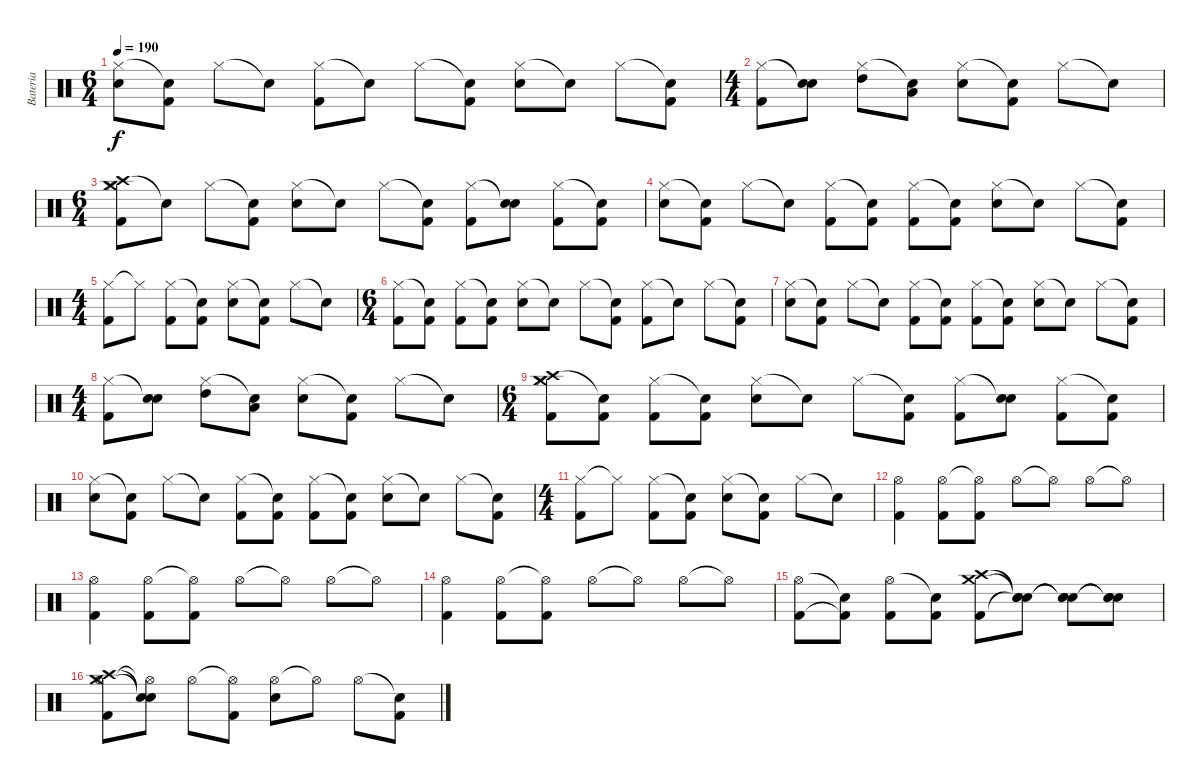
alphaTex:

\track ("Bateria" "Bateria") {instrument percussion}
\staff {score}
\articulation defaults
\ts (6 4)
\tempo 190
\clef neutral
\ks c
("Hi-Hat (closed)" "Electric Snare (hit)").8{dy f} ("Snare (hit)"{t} "Kick (hit) 2").8 "Hi-Hat (closed)".8 "Snare (hit)"{t}.8 ("Hi-Hat (closed)" "Kick (hit) 2").8 "Snare (hit)"{t}.8 "Hi-Hat (closed)".8 ("Snare (hit)"{t} "Kick (hit) 2").8 ("Hi-Hat (closed)" "Electric Snare (hit)").8 "Snare (hit)"{t}.8 "Hi-Hat (closed)".8 ("Snare (hit)"{t} "Kick (hit) 2").8 |
\ts (4 4)
("Hi-Hat (closed)" "Kick (hit) 2").8 ("Snare (hit)"{t} "Electric Snare (hit)").8 ("Hi-Hat (closed)" "High Tom (hit)").8 ("Snare (hit)"{t} "Low Tom (hit)").8 ("Hi-Hat (closed)" "Electric Snare (hit)").8 ("Snare (hit)"{t} "Kick (hit) 2").8 "Hi-Hat (closed)".8 "Snare (hit)"{t}.8 |
\ts (6 4)
("Crash high (hit)" "Crash medium (hit)" "Hi-Hat (closed)" "Kick (hit) 2").8 "Snare (hit)"{t}.8 "Hi-Hat (closed)".8 ("Snare (hit)"{t} "Kick (hit) 2").8 ("Hi-Hat (closed)" "Electric Snare (hit)").8 "Snare (hit)"{t}.8 "Hi-Hat (closed)".8 ("Snare (hit)"{t} "Kick (hit) 2").8 ("Hi-Hat (closed)" "Kick (hit) 2").8 ("Snare (hit)"{t} "Electric Snare (hit)").8 ("Hi-Hat (closed)" "Kick (hit) 2").8 ("Snare (hit)"{t} "Kick (hit) 2").8 |
("Hi-Hat (closed)" "Electric Snare (hit)").8 ("Snare (hit)"{t} "Kick (hit) 2").8 "Hi-Hat (closed)".8 "Snare (hit)"{t}.8 ("Hi-Hat (closed)" "Kick (hit) 2").8 ("Snare (hit)"{t} "Kick (hit) 2").8 ("Hi-Hat (closed)" "Kick (hit) 2").8 ("Snare (hit)"{t} "Kick (hit) 2").8 ("Hi-Hat (closed)" "Electric Snare (hit)").8 "Snare (hit)"{t}.8 "Hi-Hat (closed)".8 ("Snare (hit)"{t} "Kick (hit) 2").8 |
\ts (4 4)
("Hi-Hat (closed)" "Kick (hit) 2").8 "Hi-Hat (closed)"{t}.8 ("Hi-Hat (closed)" "Kick (hit) 2").8 ("Snare (hit)"{t} "Kick (hit) 2").8 ("Hi-Hat (closed)" "Electric Snare (hit)").8 ("Snare (hit)"{t} "Kick (hit) 2").8 "Hi-Hat (closed)".8 "Snare (hit)"{t}.8 |
\ts (6 4)
("Hi-Hat (closed)" "Kick (hit) 2").8 ("Snare (hit)"{t} "Kick (hit) 2").8 ("Hi-Hat (closed)" "Kick (hit) 2").8 ("Snare (hit)"{t} "Kick (hit) 2").8 ("Hi-Hat (closed)" "Electric Snare (hit)").8 "Snare (hit)"{t}.8 "Hi-Hat (closed)".8 ("Snare (hit)"{t} "Kick (hit) 2").8 ("Hi-Hat (closed)" "Kick (hit) 2").8 "Snare (hit)"{t}.8 "Hi-Hat (closed)".8 ("Snare (hit)"{t} "Kick (hit) 2").8 |
("Hi-Hat (closed)" "Electric Snare (hit)").8 ("Snare (hit)"{t} "Kick (hit) 2").8 "Hi-Hat (closed)".8 "Snare (hit)"{t}.8 ("Hi-Hat (closed)" "Kick (hit) 2").8 ("Snare (hit)"{t} "Kick (hit) 2").8 ("Hi-Hat (closed)" "Kick (hit) 2").8 ("Snare (hit)"{t} "Kick (hit) 2").8 ("Hi-Hat (closed)" "Electric Snare (hit)").8 "Snare (hit)"{t}.8 "Hi-Hat (closed)".8 ("Snare (hit)"{t} "Kick (hit) 2").8 |
\ts (4 4)
("Hi-Hat (closed)" "Kick (hit) 2").8 ("Snare (hit)"{t} "Electric Snare (hit)").8 ("Hi-Hat (closed)" "High Tom (hit)").8 ("Snare (hit)"{t} "Low Tom (hit)").8 ("Hi-Hat (closed)" "Electric Snare (hit)").8 ("Snare (hit)"{t} "Kick (hit) 2").8 "Hi-Hat (closed)".8 "Snare (hit)"{t}.8 |
\ts (6 4)
("Crash high (hit)" "Crash medium (hit)" "Hi-Hat (closed)" "Kick (hit) 2").8 ("Snare (hit)"{t} "Kick (hit) 2").8 ("Hi-Hat (closed)" "Kick (hit) 2").8 ("Snare (hit)"{t} "Kick (hit) 2").8 ("Hi-Hat (closed)" "Electric Snare (hit)").8 "Snare (hit)"{t}.8 "Hi-Hat (closed)".8 ("Snare (hit)"{t} "Kick (hit) 2").8 ("Hi-Hat (closed)" "Kick (hit) 2").8 ("Snare (hit)"{t} "Electric Snare (hit)").8 ("Hi-Hat (closed)" "Kick (hit) 2").8 ("Snare (hit)"{t} "Kick (hit) 2").8 |
("Hi-Hat (closed)" "Electric Snare (hit)").8 ("Snare (hit)"{t} "Kick (hit) 2").8 "Hi-Hat (closed)".8 "Snare (hit)"{t}.8 ("Hi-Hat (closed)" "Kick (hit) 2").8 ("Snare (hit)"{t} "Kick (hit) 2").8 ("Hi-Hat (closed)" "Kick (hit) 2").8 ("Snare (hit)"{t} "Kick (hit) 2").8 ("Hi-Hat (closed)" "Electric Snare (hit)").8 "Snare (hit)"{t}.8 "Hi-Hat (closed)".8 ("Snare (hit)"{t} "Kick (hit) 2").8 |
\ts (4 4)
("Hi-Hat (closed)" "Kick (hit) 2").8 "Hi-Hat (closed)"{t}.8 ("Hi-Hat (closed)" "Kick (hit) 2").8 ("Snare (hit)"{t} "Kick (hit) 2").8 ("Hi-Hat (closed)" "Electric Snare (hit)").8 ("Snare (hit)"{t} "Kick (hit) 2").8 "Hi-Hat (closed)".8 "Snare (hit)"{t}.8 |
("Hi-Hat (open)" "Kick (hit) 2").4 ("Hi-Hat (open)" "Kick (hit) 2").8 ("Hi-Hat (open)"{t} "Kick (hit) 2").8 "Hi-Hat (open)".8 "Hi-Hat (open)"{t}.8 "Hi-Hat (open)".8 "Hi-Hat (open)"{t}.8 |
("Hi-Hat (open)" "Kick (hit) 2").4 ("Hi-Hat (open)" "Kick (hit) 2").8 ("Hi-Hat (open)"{t} "Kick (hit) 2").8 "Hi-Hat (open)".8 "Hi-Hat (open)"{t}.8 "Hi-Hat (open)".8 "Hi-Hat (open)"{t}.8 |
("Hi-Hat (open)" "Kick (hit) 2").4 ("Hi-Hat (open)" "Kick (hit) 2").8 ("Hi-Hat (open)"{t} "Kick (hit) 2").8 "Hi-Hat (open)".8 "Hi-Hat (open)"{t}.8 "Hi-Hat (open)".8 "Hi-Hat (open)"{t}.8 |
("Hi-Hat (open)" "Kick (hit) 2").8 ("Snare (hit)"{t} "Kick (hit) 2"{t}).8 ("Hi-Hat (open)" "Kick (hit) 2").8 ("Snare (hit)"{t} "Kick (hit) 2").8 ("Crash high (hit)" "Crash medium (hit)" "Kick (hit) 2").8 ("Snare (hit)"{t} "Snare (hit)"{t} "Snare (hit)"{t}).8 ("Snare (hit)"{t} "Snare (hit)"{t} "Snare (hit)"{t}).8 ("Snare (hit)"{t} "Snare (hit)"{t} "Snare (hit)"{t}).8 |
("Hi-Hat (open)" "Crash high (hit)" "Crash medium (hit)" "Kick (hit) 2").8 ("Snare (hit)"{t} "Snare (hit)"{t} "Hi-Hat (open)"{t}).8 "Hi-Hat (open)".8 ("Hi-Hat (open)"{t} "Kick (hit) 2").8 ("Hi-Hat (open)" "Electric Snare (hit)").8 "Hi-Hat (open)"{t}.8 "Hi-Hat (open)".8 ("Snare (hit)"{t} "Kick (hit) 2").8
